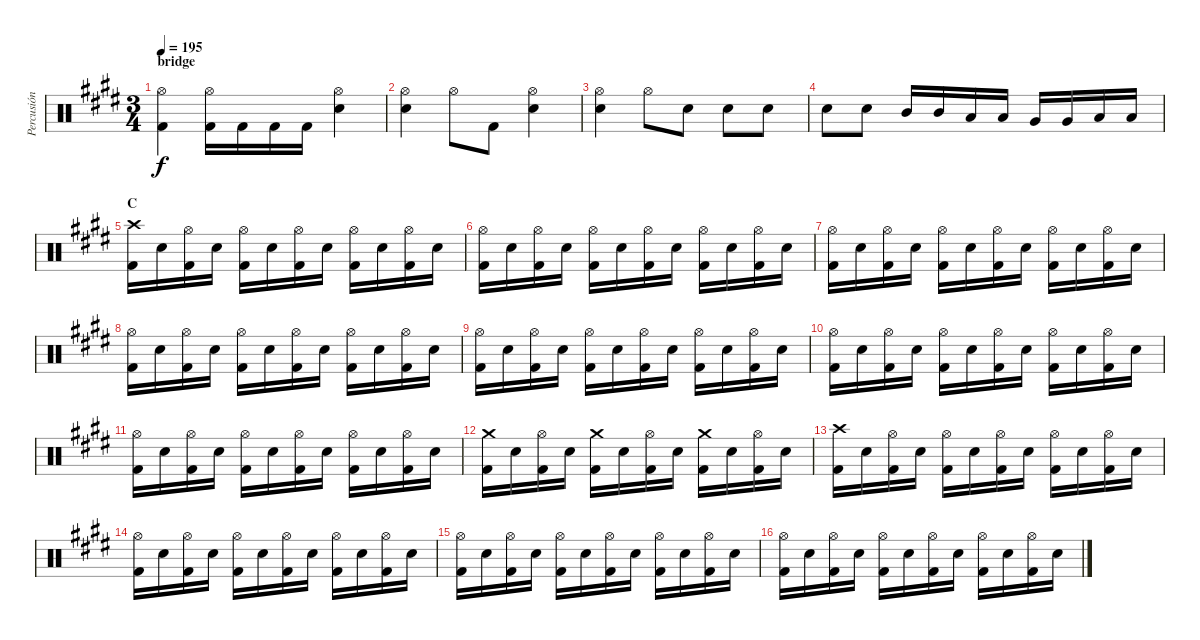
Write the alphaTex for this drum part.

\track ("Percusión" "Percusión") {instrument percussion}
\staff {score}
\articulation defaults
\ts (3 4)
\section ("" "bridge")
\tempo 195
\clef neutral
\ks e
("Hi-Hat (open)" "Kick (hit) 2").4{dy f} ("Hi-Hat (open)" "Kick (hit) 2").16 "Kick (hit) 2".16 "Kick (hit) 2".16 "Kick (hit) 2".16 ("Hi-Hat (open)" "Electric Snare (hit)").4 |
("Hi-Hat (open)" "Electric Snare (hit)").4 "Hi-Hat (open)".8 "Kick (hit) 2".8 ("Hi-Hat (open)" "Electric Snare (hit)").4 |
("Hi-Hat (open)" "Electric Snare (hit)").4 "Hi-Hat (open)".8 "Electric Snare (hit)".8 "Electric Snare (hit)".8 "Electric Snare (hit)".8 |
"Electric Snare (hit)".8 "Electric Snare (hit)".8 "Mid Tom (hit)".16 "Mid Tom (hit)".16 "Low Tom (hit)".16 "Low Tom (hit)".16 "Very Low Tom (hit)".16 "Very Low Tom (hit)".16 "Low Floor Tom (hit)".16 "Low Floor Tom (hit)".16 |
\section ("" "C")
("Crash high (hit)" "Kick (hit) 2").16 "Electric Snare (hit)".16 ("Hi-Hat (open)" "Kick (hit) 2").16 "Electric Snare (hit)".16 ("Hi-Hat (open)" "Kick (hit) 2").16 "Electric Snare (hit)".16 ("Hi-Hat (open)" "Kick (hit) 2").16 "Electric Snare (hit)".16 ("Hi-Hat (open)" "Kick (hit) 2").16 "Electric Snare (hit)".16 ("Hi-Hat (open)" "Kick (hit) 2").16 "Electric Snare (hit)".16 |
("Hi-Hat (open)" "Kick (hit) 2").16 "Electric Snare (hit)".16 ("Hi-Hat (open)" "Kick (hit) 2").16 "Electric Snare (hit)".16 ("Hi-Hat (open)" "Kick (hit) 2").16 "Electric Snare (hit)".16 ("Hi-Hat (open)" "Kick (hit) 2").16 "Electric Snare (hit)".16 ("Hi-Hat (open)" "Kick (hit) 2").16 "Electric Snare (hit)".16 ("Hi-Hat (open)" "Kick (hit) 2").16 "Electric Snare (hit)".16 |
("Hi-Hat (open)" "Kick (hit) 2").16 "Electric Snare (hit)".16 ("Hi-Hat (open)" "Kick (hit) 2").16 "Electric Snare (hit)".16 ("Hi-Hat (open)" "Kick (hit) 2").16 "Electric Snare (hit)".16 ("Hi-Hat (open)" "Kick (hit) 2").16 "Electric Snare (hit)".16 ("Hi-Hat (open)" "Kick (hit) 2").16 "Electric Snare (hit)".16 ("Hi-Hat (open)" "Kick (hit) 2").16 "Electric Snare (hit)".16 |
("Hi-Hat (open)" "Kick (hit) 2").16 "Electric Snare (hit)".16 ("Hi-Hat (open)" "Kick (hit) 2").16 "Electric Snare (hit)".16 ("Hi-Hat (open)" "Kick (hit) 2").16 "Electric Snare (hit)".16 ("Hi-Hat (open)" "Kick (hit) 2").16 "Electric Snare (hit)".16 ("Hi-Hat (open)" "Kick (hit) 2").16 "Electric Snare (hit)".16 ("Hi-Hat (open)" "Kick (hit) 2").16 "Electric Snare (hit)".16 |
("Hi-Hat (open)" "Kick (hit) 2").16 "Electric Snare (hit)".16 ("Hi-Hat (open)" "Kick (hit) 2").16 "Electric Snare (hit)".16 ("Hi-Hat (open)" "Kick (hit) 2").16 "Electric Snare (hit)".16 ("Hi-Hat (open)" "Kick (hit) 2").16 "Electric Snare (hit)".16 ("Hi-Hat (open)" "Kick (hit) 2").16 "Electric Snare (hit)".16 ("Hi-Hat (open)" "Kick (hit) 2").16 "Electric Snare (hit)".16 |
("Hi-Hat (open)" "Kick (hit) 2").16 "Electric Snare (hit)".16 ("Hi-Hat (open)" "Kick (hit) 2").16 "Electric Snare (hit)".16 ("Hi-Hat (open)" "Kick (hit) 2").16 "Electric Snare (hit)".16 ("Hi-Hat (open)" "Kick (hit) 2").16 "Electric Snare (hit)".16 ("Hi-Hat (open)" "Kick (hit) 2").16 "Electric Snare (hit)".16 ("Hi-Hat (open)" "Kick (hit) 2").16 "Electric Snare (hit)".16 |
("Hi-Hat (open)" "Kick (hit) 2").16 "Electric Snare (hit)".16 ("Hi-Hat (open)" "Kick (hit) 2").16 "Electric Snare (hit)".16 ("Hi-Hat (open)" "Kick (hit) 2").16 "Electric Snare (hit)".16 ("Hi-Hat (open)" "Kick (hit) 2").16 "Electric Snare (hit)".16 ("Hi-Hat (open)" "Kick (hit) 2").16 "Electric Snare (hit)".16 ("Hi-Hat (open)" "Kick (hit) 2").16 "Electric Snare (hit)".16 |
("Crash medium (hit)" "Kick (hit) 2").16 "Electric Snare (hit)".16 ("Hi-Hat (open)" "Kick (hit) 2").16 "Electric Snare (hit)".16 ("Crash medium (hit)" "Kick (hit) 2").16 "Electric Snare (hit)".16 ("Hi-Hat (open)" "Kick (hit) 2").16 "Electric Snare (hit)".16 ("Crash medium (hit)" "Kick (hit) 2").16 "Electric Snare (hit)".16 ("Hi-Hat (open)" "Kick (hit) 2").16 "Electric Snare (hit)".16 |
("Crash high (hit)" "Kick (hit) 2").16 "Electric Snare (hit)".16 ("Hi-Hat (open)" "Kick (hit) 2").16 "Electric Snare (hit)".16 ("Hi-Hat (open)" "Kick (hit) 2").16 "Electric Snare (hit)".16 ("Hi-Hat (open)" "Kick (hit) 2").16 "Electric Snare (hit)".16 ("Hi-Hat (open)" "Kick (hit) 2").16 "Electric Snare (hit)".16 ("Hi-Hat (open)" "Kick (hit) 2").16 "Electric Snare (hit)".16 |
("Hi-Hat (open)" "Kick (hit) 2").16 "Electric Snare (hit)".16 ("Hi-Hat (open)" "Kick (hit) 2").16 "Electric Snare (hit)".16 ("Hi-Hat (open)" "Kick (hit) 2").16 "Electric Snare (hit)".16 ("Hi-Hat (open)" "Kick (hit) 2").16 "Electric Snare (hit)".16 ("Hi-Hat (open)" "Kick (hit) 2").16 "Electric Snare (hit)".16 ("Hi-Hat (open)" "Kick (hit) 2").16 "Electric Snare (hit)".16 |
("Hi-Hat (open)" "Kick (hit) 2").16 "Electric Snare (hit)".16 ("Hi-Hat (open)" "Kick (hit) 2").16 "Electric Snare (hit)".16 ("Hi-Hat (open)" "Kick (hit) 2").16 "Electric Snare (hit)".16 ("Hi-Hat (open)" "Kick (hit) 2").16 "Electric Snare (hit)".16 ("Hi-Hat (open)" "Kick (hit) 2").16 "Electric Snare (hit)".16 ("Hi-Hat (open)" "Kick (hit) 2").16 "Electric Snare (hit)".16 |
("Hi-Hat (open)" "Kick (hit) 2").16 "Electric Snare (hit)".16 ("Hi-Hat (open)" "Kick (hit) 2").16 "Electric Snare (hit)".16 ("Hi-Hat (open)" "Kick (hit) 2").16 "Electric Snare (hit)".16 ("Hi-Hat (open)" "Kick (hit) 2").16 "Electric Snare (hit)".16 ("Hi-Hat (open)" "Kick (hit) 2").16 "Electric Snare (hit)".16 ("Hi-Hat (open)" "Kick (hit) 2").16 "Electric Snare (hit)".16
